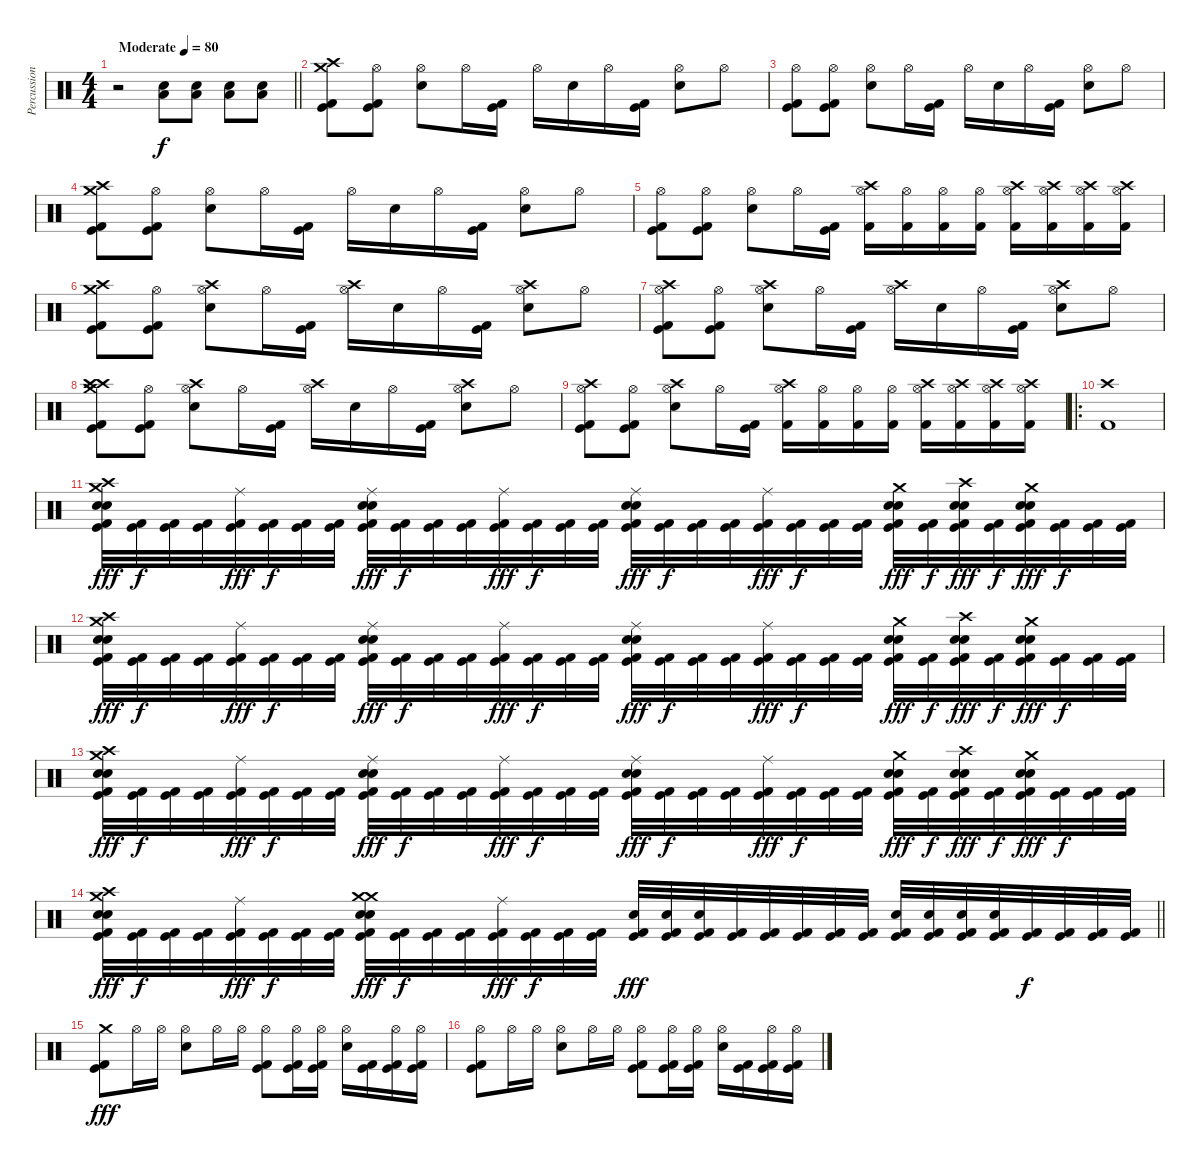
\track ("Percussion" "Percussion") {instrument percussion}
\staff {score}
\articulation defaults
\ts (4 4)
\tempo (80 "Moderate")
\clef neutral
\barLineRight lightlight
\ks c
r.2{dy f} ("Snare (hit) 2" "Low Tom (hit)").8 ("Snare (hit) 2" "Low Tom (hit)").8 ("Snare (hit) 2" "Low Tom (hit)").8 ("Snare (hit) 2" "Low Tom (hit)").8 |
("Crash medium (hit)" "Crash high (hit)" "Kick (hit)" "Kick (hit) 2").8 ("Hi-Hat (open)" "Kick (hit)" "Kick (hit) 2").8 ("Hi-Hat (open)" "Electric Snare (hit)").8 "Hi-Hat (open)".16 ("Kick (hit)" "Kick (hit) 2").16 "Hi-Hat (open)".16 "Electric Snare (hit)".16 "Hi-Hat (open)".16 ("Kick (hit)" "Kick (hit) 2").16 ("Hi-Hat (open)" "Electric Snare (hit)").8 "Hi-Hat (open)".8 |
("Hi-Hat (open)" "Kick (hit)" "Kick (hit) 2").8 ("Hi-Hat (open)" "Kick (hit)" "Kick (hit) 2").8 ("Hi-Hat (open)" "Electric Snare (hit)").8 "Hi-Hat (open)".16 ("Kick (hit)" "Kick (hit) 2").16 "Hi-Hat (open)".16 "Electric Snare (hit)".16 "Hi-Hat (open)".16 ("Kick (hit)" "Kick (hit) 2").16 ("Hi-Hat (open)" "Electric Snare (hit)").8 "Hi-Hat (open)".8 |
("Crash medium (hit)" "Crash high (hit)" "Kick (hit)" "Kick (hit) 2").8 ("Hi-Hat (open)" "Kick (hit)" "Kick (hit) 2").8 ("Hi-Hat (open)" "Electric Snare (hit)").8 "Hi-Hat (open)".16 ("Kick (hit)" "Kick (hit) 2").16 "Hi-Hat (open)".16 "Electric Snare (hit)".16 "Hi-Hat (open)".16 ("Kick (hit)" "Kick (hit) 2").16 ("Hi-Hat (open)" "Electric Snare (hit)").8 "Hi-Hat (open)".8 |
("Hi-Hat (open)" "Kick (hit)" "Kick (hit) 2").8 ("Hi-Hat (open)" "Kick (hit)" "Kick (hit) 2").8 ("Hi-Hat (open)" "Electric Snare (hit)").8 "Hi-Hat (open)".16 ("Kick (hit)" "Kick (hit) 2").16 ("Kick (hit) 2" "Hi-Hat (open)" "Crash high (hit)").16 ("Kick (hit) 2" "Hi-Hat (open)").16 ("Kick (hit) 2" "Hi-Hat (open)").16 ("Hi-Hat (open)" "Kick (hit) 2").16 ("Kick (hit) 2" "Hi-Hat (open)" "Crash high (hit)").16 ("Kick (hit) 2" "Hi-Hat (open)" "Crash high (hit)").16 ("Kick (hit) 2" "Hi-Hat (open)" "Crash high (hit)").16 ("Kick (hit) 2" "Hi-Hat (open)" "Crash high (hit)").16 |
("Crash medium (hit)" "Crash high (hit)" "Kick (hit)" "Kick (hit) 2").8 ("Hi-Hat (open)" "Kick (hit)" "Kick (hit) 2").8 ("Crash high (hit)" "Hi-Hat (open)" "Electric Snare (hit)").8 "Hi-Hat (open)".16 ("Kick (hit)" "Kick (hit) 2").16 ("Crash high (hit)" "Hi-Hat (open)").16 "Electric Snare (hit)".16 "Hi-Hat (open)".16 ("Kick (hit)" "Kick (hit) 2").16 ("Crash high (hit)" "Hi-Hat (open)" "Electric Snare (hit)").8 "Hi-Hat (open)".8 |
("Hi-Hat (open)" "Crash high (hit)" "Kick (hit)" "Kick (hit) 2").8 ("Hi-Hat (open)" "Kick (hit)" "Kick (hit) 2").8 ("Crash high (hit)" "Hi-Hat (open)" "Electric Snare (hit)").8 "Hi-Hat (open)".16 ("Kick (hit)" "Kick (hit) 2").16 ("Crash high (hit)" "Hi-Hat (open)").16 "Electric Snare (hit)".16 "Hi-Hat (open)".16 ("Kick (hit)" "Kick (hit) 2").16 ("Crash high (hit)" "Hi-Hat (open)" "Electric Snare (hit)").8 "Hi-Hat (open)".8 |
("Crash medium (hit)" "Crash high (hit)" "Crash high (hit)" "Kick (hit)" "Kick (hit) 2").8 ("Hi-Hat (open)" "Kick (hit)" "Kick (hit) 2").8 ("Crash high (hit)" "Hi-Hat (open)" "Electric Snare (hit)").8 "Hi-Hat (open)".16 ("Kick (hit)" "Kick (hit) 2").16 ("Crash high (hit)" "Hi-Hat (open)").16 "Electric Snare (hit)".16 "Hi-Hat (open)".16 ("Kick (hit)" "Kick (hit) 2").16 ("Crash high (hit)" "Hi-Hat (open)" "Electric Snare (hit)").8 "Hi-Hat (open)".8 |
("Hi-Hat (open)" "Crash high (hit)" "Kick (hit)" "Kick (hit) 2").8 ("Hi-Hat (open)" "Kick (hit)" "Kick (hit) 2").8 ("Crash high (hit)" "Hi-Hat (open)" "Electric Snare (hit)").8 "Hi-Hat (open)".16 ("Kick (hit)" "Kick (hit) 2").16 ("Kick (hit) 2" "Hi-Hat (open)" "Crash high (hit)").16 ("Kick (hit) 2" "Hi-Hat (open)").16 ("Kick (hit) 2" "Hi-Hat (open)").16 ("Hi-Hat (open)" "Kick (hit) 2").16 ("Kick (hit) 2" "Hi-Hat (open)" "Crash high (hit)").16 ("Kick (hit) 2" "Hi-Hat (open)" "Crash high (hit)").16 ("Kick (hit) 2" "Hi-Hat (open)" "Crash high (hit)").16 ("Kick (hit) 2" "Hi-Hat (open)" "Crash high (hit)").16 |
\ro
("Crash high (hit)" "Kick (hit) 2").1 |
("Crash high (hit)" "Crash medium (hit)" "Electric Snare (hit)" "Electric Snare (hit)" "Kick (hit) 2" "Kick (hit)").32{dy fff} ("Kick (hit) 2" "Kick (hit)").32{dy f} ("Kick (hit) 2" "Kick (hit)").32 ("Kick (hit) 2" "Kick (hit)").32 ("Ride (middle)" "Kick (hit) 2" "Kick (hit)").32{dy fff} ("Kick (hit) 2" "Kick (hit)").32{dy f} ("Kick (hit) 2" "Kick (hit)").32 ("Kick (hit) 2" "Kick (hit)").32 ("Ride (middle)" "Electric Snare (hit)" "Electric Snare (hit)" "Kick (hit) 2" "Kick (hit)").32{dy fff} ("Kick (hit) 2" "Kick (hit)").32{dy f} ("Kick (hit) 2" "Kick (hit)").32 ("Kick (hit) 2" "Kick (hit)").32 ("Ride (middle)" "Kick (hit) 2" "Kick (hit)").32{dy fff} ("Kick (hit) 2" "Kick (hit)").32{dy f} ("Kick (hit) 2" "Kick (hit)").32 ("Kick (hit) 2" "Kick (hit)").32 ("Ride (middle)" "Electric Snare (hit)" "Electric Snare (hit)" "Kick (hit) 2" "Kick (hit)").32{dy fff} ("Kick (hit) 2" "Kick (hit)").32{dy f} ("Kick (hit) 2" "Kick (hit)").32 ("Kick (hit) 2" "Kick (hit)").32 ("Ride (middle)" "Kick (hit) 2" "Kick (hit)").32{dy fff} ("Kick (hit) 2" "Kick (hit)").32{dy f} ("Kick (hit) 2" "Kick (hit)").32 ("Kick (hit) 2" "Kick (hit)").32 ("Crash medium (hit)" "Electric Snare (hit)" "Electric Snare (hit)" "Kick (hit) 2" "Kick (hit)").32{dy fff} ("Kick (hit) 2" "Kick (hit)").32{dy f} ("Crash high (hit)" "Electric Snare (hit)" "Electric Snare (hit)" "Kick (hit) 2" "Kick (hit)").32{dy fff} ("Kick (hit) 2" "Kick (hit)").32{dy f} ("Crash medium (hit)" "Electric Snare (hit)" "Electric Snare (hit)" "Kick (hit) 2" "Kick (hit)").32{dy fff} ("Kick (hit) 2" "Kick (hit)").32{dy f} ("Kick (hit) 2" "Kick (hit)").32 ("Kick (hit) 2" "Kick (hit)").32 |
("Crash high (hit)" "Crash medium (hit)" "Electric Snare (hit)" "Electric Snare (hit)" "Kick (hit) 2" "Kick (hit)").32{dy fff} ("Kick (hit) 2" "Kick (hit)").32{dy f} ("Kick (hit) 2" "Kick (hit)").32 ("Kick (hit) 2" "Kick (hit)").32 ("Ride (middle)" "Kick (hit) 2" "Kick (hit)").32{dy fff} ("Kick (hit) 2" "Kick (hit)").32{dy f} ("Kick (hit) 2" "Kick (hit)").32 ("Kick (hit) 2" "Kick (hit)").32 ("Ride (middle)" "Electric Snare (hit)" "Electric Snare (hit)" "Kick (hit) 2" "Kick (hit)").32{dy fff} ("Kick (hit) 2" "Kick (hit)").32{dy f} ("Kick (hit) 2" "Kick (hit)").32 ("Kick (hit) 2" "Kick (hit)").32 ("Ride (middle)" "Kick (hit) 2" "Kick (hit)").32{dy fff} ("Kick (hit) 2" "Kick (hit)").32{dy f} ("Kick (hit) 2" "Kick (hit)").32 ("Kick (hit) 2" "Kick (hit)").32 ("Ride (middle)" "Electric Snare (hit)" "Electric Snare (hit)" "Kick (hit) 2" "Kick (hit)").32{dy fff} ("Kick (hit) 2" "Kick (hit)").32{dy f} ("Kick (hit) 2" "Kick (hit)").32 ("Kick (hit) 2" "Kick (hit)").32 ("Ride (middle)" "Kick (hit) 2" "Kick (hit)").32{dy fff} ("Kick (hit) 2" "Kick (hit)").32{dy f} ("Kick (hit) 2" "Kick (hit)").32 ("Kick (hit) 2" "Kick (hit)").32 ("Crash medium (hit)" "Electric Snare (hit)" "Electric Snare (hit)" "Kick (hit) 2" "Kick (hit)").32{dy fff} ("Kick (hit) 2" "Kick (hit)").32{dy f} ("Crash high (hit)" "Electric Snare (hit)" "Electric Snare (hit)" "Kick (hit) 2" "Kick (hit)").32{dy fff} ("Kick (hit) 2" "Kick (hit)").32{dy f} ("Crash medium (hit)" "Electric Snare (hit)" "Electric Snare (hit)" "Kick (hit) 2" "Kick (hit)").32{dy fff} ("Kick (hit) 2" "Kick (hit)").32{dy f} ("Kick (hit) 2" "Kick (hit)").32 ("Kick (hit) 2" "Kick (hit)").32 |
("Crash high (hit)" "Crash medium (hit)" "Electric Snare (hit)" "Electric Snare (hit)" "Kick (hit) 2" "Kick (hit)").32{dy fff} ("Kick (hit) 2" "Kick (hit)").32{dy f} ("Kick (hit) 2" "Kick (hit)").32 ("Kick (hit) 2" "Kick (hit)").32 ("Ride (middle)" "Kick (hit) 2" "Kick (hit)").32{dy fff} ("Kick (hit) 2" "Kick (hit)").32{dy f} ("Kick (hit) 2" "Kick (hit)").32 ("Kick (hit) 2" "Kick (hit)").32 ("Ride (middle)" "Electric Snare (hit)" "Electric Snare (hit)" "Kick (hit) 2" "Kick (hit)").32{dy fff} ("Kick (hit) 2" "Kick (hit)").32{dy f} ("Kick (hit) 2" "Kick (hit)").32 ("Kick (hit) 2" "Kick (hit)").32 ("Ride (middle)" "Kick (hit) 2" "Kick (hit)").32{dy fff} ("Kick (hit) 2" "Kick (hit)").32{dy f} ("Kick (hit) 2" "Kick (hit)").32 ("Kick (hit) 2" "Kick (hit)").32 ("Ride (middle)" "Electric Snare (hit)" "Electric Snare (hit)" "Kick (hit) 2" "Kick (hit)").32{dy fff} ("Kick (hit) 2" "Kick (hit)").32{dy f} ("Kick (hit) 2" "Kick (hit)").32 ("Kick (hit) 2" "Kick (hit)").32 ("Ride (middle)" "Kick (hit) 2" "Kick (hit)").32{dy fff} ("Kick (hit) 2" "Kick (hit)").32{dy f} ("Kick (hit) 2" "Kick (hit)").32 ("Kick (hit) 2" "Kick (hit)").32 ("Crash medium (hit)" "Electric Snare (hit)" "Electric Snare (hit)" "Kick (hit) 2" "Kick (hit)").32{dy fff} ("Kick (hit) 2" "Kick (hit)").32{dy f} ("Crash high (hit)" "Electric Snare (hit)" "Electric Snare (hit)" "Kick (hit) 2" "Kick (hit)").32{dy fff} ("Kick (hit) 2" "Kick (hit)").32{dy f} ("Crash medium (hit)" "Electric Snare (hit)" "Electric Snare (hit)" "Kick (hit) 2" "Kick (hit)").32{dy fff} ("Kick (hit) 2" "Kick (hit)").32{dy f} ("Kick (hit) 2" "Kick (hit)").32 ("Kick (hit) 2" "Kick (hit)").32 |
\barLineRight lightlight
("Crash high (hit)" "Crash medium (hit)" "Electric Snare (hit)" "Electric Snare (hit)" "Kick (hit) 2" "Kick (hit)").32{dy fff} ("Kick (hit) 2" "Kick (hit)").32{dy f} ("Kick (hit) 2" "Kick (hit)").32 ("Kick (hit) 2" "Kick (hit)").32 ("Ride (middle)" "Kick (hit) 2" "Kick (hit)").32{dy fff} ("Kick (hit) 2" "Kick (hit)").32{dy f} ("Kick (hit) 2" "Kick (hit)").32 ("Kick (hit) 2" "Kick (hit)").32 ("Crash medium (hit)" "Crash medium (hit)" "Electric Snare (hit)" "Electric Snare (hit)" "Kick (hit) 2" "Kick (hit)").32{dy fff} ("Kick (hit) 2" "Kick (hit)").32{dy f} ("Kick (hit) 2" "Kick (hit)").32 ("Kick (hit) 2" "Kick (hit)").32 ("Ride (middle)" "Kick (hit) 2" "Kick (hit)").32{dy fff} ("Kick (hit) 2" "Kick (hit)").32{dy f} ("Kick (hit) 2" "Kick (hit)").32 ("Kick (hit) 2" "Kick (hit)").32 ("Electric Snare (hit)" "Kick (hit) 2" "Kick (hit)").32{dy fff} ("Electric Snare (hit)" "Kick (hit) 2" "Kick (hit)").32 ("Electric Snare (hit)" "Kick (hit) 2" "Kick (hit)").32 ("Kick (hit) 2" "Kick (hit)").32 ("Kick (hit) 2" "Kick (hit)").32 ("Kick (hit) 2" "Kick (hit)").32 ("Kick (hit) 2" "Kick (hit)").32 ("Kick (hit) 2" "Kick (hit)").32 ("Electric Snare (hit)" "Kick (hit) 2" "Kick (hit)").32 ("Electric Snare (hit)" "Kick (hit) 2" "Kick (hit)").32 ("Electric Snare (hit)" "Kick (hit) 2" "Kick (hit)").32 ("Electric Snare (hit)" "Kick (hit) 2" "Kick (hit)").32 ("Kick (hit) 2" "Kick (hit)").32{dy f} ("Kick (hit) 2" "Kick (hit)").32 ("Kick (hit) 2" "Kick (hit)").32 ("Kick (hit) 2" "Kick (hit)").32 |
("Crash medium (hit)" "Kick (hit) 2" "Kick (hit)").8{dy fff} "Hi-Hat (open)".16 "Hi-Hat (open)".16 ("Hi-Hat (open)" "Electric Snare (hit)").8 "Hi-Hat (open)".16 "Hi-Hat (open)".16 ("Hi-Hat (open)" "Kick (hit) 2" "Kick (hit)").8 ("Hi-Hat (open)" "Kick (hit) 2" "Kick (hit)").16 ("Hi-Hat (open)" "Kick (hit) 2" "Kick (hit)").16 ("Hi-Hat (open)" "Electric Snare (hit)").16 ("Kick (hit) 2" "Kick (hit)").16 ("Hi-Hat (open)" "Kick (hit) 2" "Kick (hit)").16 ("Hi-Hat (open)" "Kick (hit) 2" "Kick (hit)").16 |
("Hi-Hat (open)" "Kick (hit) 2" "Kick (hit)").8 "Hi-Hat (open)".16 "Hi-Hat (open)".16 ("Hi-Hat (open)" "Electric Snare (hit)").8 "Hi-Hat (open)".16 "Hi-Hat (open)".16 ("Hi-Hat (open)" "Kick (hit) 2" "Kick (hit)").8 ("Hi-Hat (open)" "Kick (hit) 2" "Kick (hit)").16 ("Hi-Hat (open)" "Kick (hit) 2" "Kick (hit)").16 ("Hi-Hat (open)" "Electric Snare (hit)").16 ("Kick (hit) 2" "Kick (hit)").16 ("Hi-Hat (open)" "Kick (hit) 2" "Kick (hit)").16 ("Hi-Hat (open)" "Kick (hit) 2" "Kick (hit)").16
